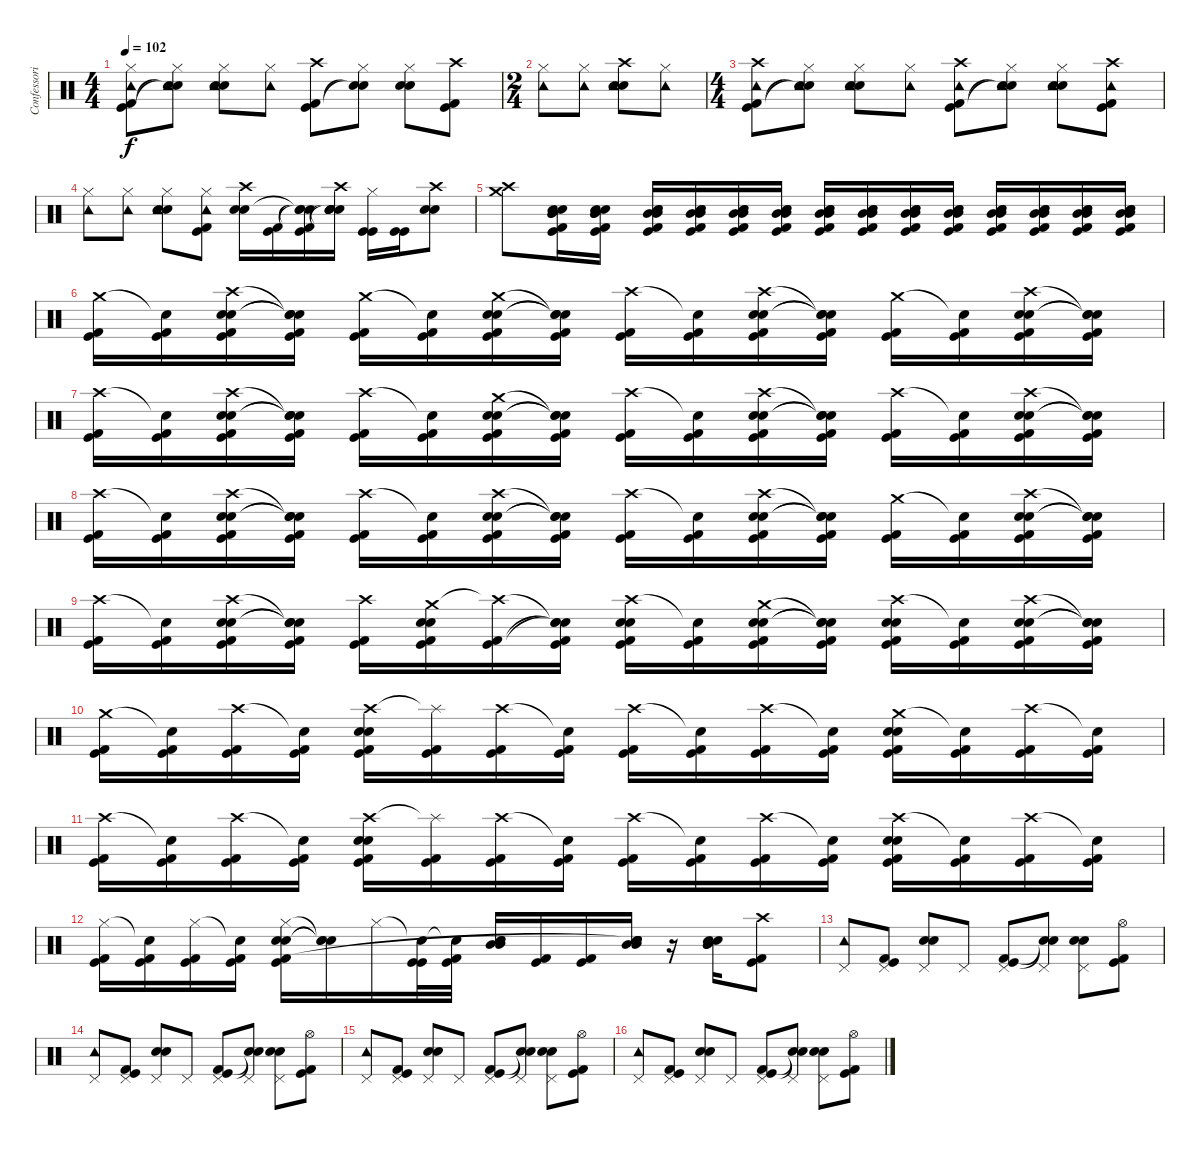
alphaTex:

\track ("Confessori" "Confessori") {instrument percussion}
\staff {score}
\articulation defaults
\ts (4 4)
\tempo 102
\clef neutral
\ks c
("Hi-Hat (closed)" "Kick (hit)" "Kick (hit) 2" "Tambourine (hit)").8{dy f} ("Hi-Hat (closed)" "Snare (hit)"{t} "Snare (hit)"{t} "Tambourine (hit)").8 ("Hi-Hat (closed)" "Electric Snare (hit)" "Snare (hit) 2" "Tambourine (hit)").8 ("Hi-Hat (closed)" "Tambourine (hit)").8 ("Crash high (hit)" "Kick (hit)" "Kick (hit) 2").8 ("Hi-Hat (closed)" "Snare (hit)"{t} "Snare (hit)"{t}).8 ("Hi-Hat (closed)" "Electric Snare (hit)" "Snare (hit) 2").8 ("Crash high (hit)" "Kick (hit)" "Kick (hit) 2").8 |
\ts (2 4)
("Hi-Hat (closed)" "Tambourine (hit)").8 ("Hi-Hat (closed)" "Tambourine (hit)").8 ("Crash high (hit)" "Electric Snare (hit)" "Snare (hit) 2" "Tambourine (hit)").8 ("Hi-Hat (closed)" "Tambourine (hit)").8 |
\ts (4 4)
("Crash high (hit)" "Kick (hit)" "Kick (hit) 2" "Tambourine (hit)").8 ("Hi-Hat (closed)" "Snare (hit)"{t} "Snare (hit)"{t} "Tambourine (hit)").8 ("Hi-Hat (closed)" "Electric Snare (hit)" "Snare (hit) 2" "Tambourine (hit)").8 ("Hi-Hat (closed)" "Tambourine (hit)").8 ("Crash high (hit)" "Kick (hit)" "Kick (hit) 2" "Tambourine (hit)").8 ("Hi-Hat (closed)" "Snare (hit)"{t} "Snare (hit)"{t} "Tambourine (hit)").8 ("Hi-Hat (closed)" "Electric Snare (hit)" "Snare (hit) 2" "Tambourine (hit)").8 ("Crash high (hit)" "Kick (hit)" "Kick (hit) 2" "Tambourine (hit)").8 |
("Hi-Hat (closed)" "Tambourine (hit)").8 ("Hi-Hat (closed)" "Tambourine (hit)").8 ("Hi-Hat (closed)" "Electric Snare (hit)" "Snare (hit) 2" "Tambourine (hit)").8 ("Hi-Hat (closed)" "Kick (hit)" "Kick (hit) 2" "Tambourine (hit)").8 ("Crash high (hit)" "Electric Snare (hit)" "Snare (hit) 2").16 ("Kick (hit)" "Kick (hit) 2").16 ("Snare (hit)"{t} "Snare (hit)"{t} "Snare (hit)"{t} "Kick (hit)" "Kick (hit) 2").16 ("Crash high (hit)" "Electric Snare (hit)" "Snare (hit) 2" "Snare (hit)"{t} "Snare (hit)"{t}).16 ("Hi-Hat (closed)" "Kick (hit)" "Kick (hit)").16 ("Kick (hit)" "Kick (hit)").16 ("Crash high (hit)" "Electric Snare (hit)" "Snare (hit) 2").8 |
("Crash medium (hit)" "Crash high (hit)").8 ("Electric Snare (hit)" "Snare (hit) 2" "Mid Tom (hit)" "Mid Tom (hit)" "Kick (hit) 2" "Kick (hit)").16 ("Electric Snare (hit)" "Snare (hit) 2" "Mid Tom (hit)" "Mid Tom (hit)" "Kick (hit) 2" "Kick (hit)").16 ("Electric Snare (hit)" "Snare (hit) 2" "Mid Tom (hit)" "Mid Tom (hit)" "Kick (hit) 2" "Kick (hit)").16 ("Electric Snare (hit)" "Snare (hit) 2" "Mid Tom (hit)" "Mid Tom (hit)" "Kick (hit) 2" "Kick (hit)").16 ("Electric Snare (hit)" "Snare (hit) 2" "Mid Tom (hit)" "Mid Tom (hit)" "Kick (hit) 2" "Kick (hit)").16 ("Electric Snare (hit)" "Snare (hit) 2" "Mid Tom (hit)" "Mid Tom (hit)" "Kick (hit) 2" "Kick (hit)").16 ("Electric Snare (hit)" "Snare (hit) 2" "Mid Tom (hit)" "Mid Tom (hit)" "Kick (hit) 2" "Kick (hit)").16 ("Electric Snare (hit)" "Snare (hit) 2" "Mid Tom (hit)" "Mid Tom (hit)" "Kick (hit) 2" "Kick (hit)").16 ("Electric Snare (hit)" "Snare (hit) 2" "Mid Tom (hit)" "Mid Tom (hit)" "Kick (hit) 2" "Kick (hit)").16 ("Electric Snare (hit)" "Snare (hit) 2" "Mid Tom (hit)" "Mid Tom (hit)" "Kick (hit) 2" "Kick (hit)").16 ("Electric Snare (hit)" "Snare (hit) 2" "Mid Tom (hit)" "Mid Tom (hit)" "Kick (hit) 2" "Kick (hit)").16 ("Electric Snare (hit)" "Snare (hit) 2" "Mid Tom (hit)" "Mid Tom (hit)" "Kick (hit) 2" "Kick (hit)").16 ("Electric Snare (hit)" "Snare (hit) 2" "Mid Tom (hit)" "Mid Tom (hit)" "Kick (hit) 2" "Kick (hit)").16 ("Electric Snare (hit)" "Snare (hit) 2" "Mid Tom (hit)" "Mid Tom (hit)" "Kick (hit) 2" "Kick (hit)").16 |
("Crash medium (hit)" "Kick (hit)" "Kick (hit) 2").16 ("Snare (hit)"{t} "Kick (hit)" "Kick (hit) 2").16 ("Crash high (hit)" "Electric Snare (hit)" "Snare (hit) 2" "Kick (hit)" "Kick (hit) 2").16 ("Snare (hit)"{t} "Snare (hit)"{t} "Snare (hit)"{t} "Kick (hit)" "Kick (hit) 2").16 ("Crash medium (hit)" "Kick (hit)" "Kick (hit) 2").16 ("Snare (hit)"{t} "Kick (hit)" "Kick (hit) 2").16 ("Crash medium (hit)" "Electric Snare (hit)" "Snare (hit) 2" "Kick (hit)" "Kick (hit) 2").16 ("Snare (hit)"{t} "Snare (hit)"{t} "Snare (hit)"{t} "Kick (hit)" "Kick (hit) 2").16 ("Crash high (hit)" "Kick (hit)" "Kick (hit) 2").16 ("Snare (hit)"{t} "Kick (hit)" "Kick (hit) 2").16 ("Crash high (hit)" "Electric Snare (hit)" "Snare (hit) 2" "Kick (hit)" "Kick (hit) 2").16 ("Snare (hit)"{t} "Snare (hit)"{t} "Snare (hit)"{t} "Kick (hit)" "Kick (hit) 2").16 ("Crash medium (hit)" "Kick (hit)" "Kick (hit) 2").16 ("Snare (hit)"{t} "Kick (hit)" "Kick (hit) 2").16 ("Crash high (hit)" "Electric Snare (hit)" "Snare (hit) 2" "Kick (hit)" "Kick (hit) 2").16 ("Snare (hit)"{t} "Snare (hit)"{t} "Snare (hit)"{t} "Kick (hit)" "Kick (hit) 2").16 |
("Crash high (hit)" "Kick (hit)" "Kick (hit) 2").16 ("Snare (hit)"{t} "Kick (hit)" "Kick (hit) 2").16 ("Crash high (hit)" "Electric Snare (hit)" "Snare (hit) 2" "Kick (hit)" "Kick (hit) 2").16 ("Snare (hit)"{t} "Snare (hit)"{t} "Snare (hit)"{t} "Kick (hit)" "Kick (hit) 2").16 ("Crash high (hit)" "Kick (hit)" "Kick (hit) 2").16 ("Snare (hit)"{t} "Kick (hit)" "Kick (hit) 2").16 ("Crash medium (hit)" "Electric Snare (hit)" "Snare (hit) 2" "Kick (hit)" "Kick (hit) 2").16 ("Snare (hit)"{t} "Snare (hit)"{t} "Snare (hit)"{t} "Kick (hit)" "Kick (hit) 2").16 ("Crash high (hit)" "Kick (hit)" "Kick (hit) 2").16 ("Snare (hit)"{t} "Kick (hit)" "Kick (hit) 2").16 ("Crash high (hit)" "Electric Snare (hit)" "Snare (hit) 2" "Kick (hit)" "Kick (hit) 2").16 ("Snare (hit)"{t} "Snare (hit)"{t} "Snare (hit)"{t} "Kick (hit)" "Kick (hit) 2").16 ("Crash high (hit)" "Kick (hit)" "Kick (hit) 2").16 ("Snare (hit)"{t} "Kick (hit)" "Kick (hit) 2").16 ("Crash high (hit)" "Electric Snare (hit)" "Snare (hit) 2" "Kick (hit)" "Kick (hit) 2").16 ("Snare (hit)"{t} "Snare (hit)"{t} "Snare (hit)"{t} "Kick (hit)" "Kick (hit) 2").16 |
("Crash high (hit)" "Kick (hit)" "Kick (hit) 2").16 ("Snare (hit)"{t} "Kick (hit)" "Kick (hit) 2").16 ("Crash high (hit)" "Electric Snare (hit)" "Snare (hit) 2" "Kick (hit)" "Kick (hit) 2").16 ("Snare (hit)"{t} "Snare (hit)"{t} "Snare (hit)"{t} "Kick (hit)" "Kick (hit) 2").16 ("Crash high (hit)" "Kick (hit)" "Kick (hit) 2").16 ("Snare (hit)"{t} "Kick (hit)" "Kick (hit) 2").16 ("Crash high (hit)" "Electric Snare (hit)" "Snare (hit) 2" "Kick (hit)" "Kick (hit) 2").16 ("Snare (hit)"{t} "Snare (hit)"{t} "Snare (hit)"{t} "Kick (hit)" "Kick (hit) 2").16 ("Crash high (hit)" "Kick (hit)" "Kick (hit) 2").16 ("Snare (hit)"{t} "Kick (hit)" "Kick (hit) 2").16 ("Crash high (hit)" "Electric Snare (hit)" "Snare (hit) 2" "Kick (hit)" "Kick (hit) 2").16 ("Snare (hit)"{t} "Snare (hit)"{t} "Snare (hit)"{t} "Kick (hit)" "Kick (hit) 2").16 ("Crash medium (hit)" "Kick (hit)" "Kick (hit) 2").16 ("Snare (hit)"{t} "Kick (hit)" "Kick (hit) 2").16 ("Crash high (hit)" "Electric Snare (hit)" "Snare (hit) 2" "Kick (hit)" "Kick (hit) 2").16 ("Snare (hit)"{t} "Snare (hit)"{t} "Snare (hit)"{t} "Kick (hit)" "Kick (hit) 2").16 |
("Crash high (hit)" "Kick (hit)" "Kick (hit) 2").16 ("Snare (hit)"{t} "Kick (hit)" "Kick (hit) 2").16 ("Crash high (hit)" "Electric Snare (hit)" "Snare (hit) 2" "Kick (hit)" "Kick (hit) 2").16 ("Snare (hit)"{t} "Snare (hit)"{t} "Snare (hit)"{t} "Kick (hit)" "Kick (hit) 2").16 ("Crash high (hit)" "Kick (hit)" "Kick (hit) 2").16 ("Crash medium (hit)" "Electric Snare (hit)" "Snare (hit) 2" "Kick (hit)" "Kick (hit) 2").16 ("Crash high (hit)"{t} "Kick (hit)" "Kick (hit) 2").16 ("Snare (hit)"{t} "Snare (hit)"{t} "Snare (hit)"{t} "Kick (hit)" "Kick (hit) 2").16 ("Crash high (hit)" "Electric Snare (hit)" "Snare (hit) 2" "Kick (hit)" "Kick (hit) 2").16 ("Snare (hit)"{t} "Kick (hit)" "Kick (hit) 2").16 ("Crash medium (hit)" "Electric Snare (hit)" "Snare (hit) 2" "Kick (hit)" "Kick (hit) 2").16 ("Snare (hit)"{t} "Snare (hit)"{t} "Snare (hit)"{t} "Kick (hit)" "Kick (hit) 2").16 ("Crash high (hit)" "Electric Snare (hit)" "Snare (hit) 2" "Kick (hit)" "Kick (hit) 2").16 ("Snare (hit)"{t} "Kick (hit)" "Kick (hit) 2").16 ("Crash high (hit)" "Electric Snare (hit)" "Snare (hit) 2" "Kick (hit)" "Kick (hit) 2").16 ("Snare (hit)"{t} "Snare (hit)"{t} "Snare (hit)"{t} "Kick (hit)" "Kick (hit) 2").16 |
("Crash medium (hit)" "Kick (hit)" "Kick (hit) 2").16 ("Snare (hit)"{t} "Kick (hit)" "Kick (hit) 2").16 ("Crash high (hit)" "Kick (hit)" "Kick (hit) 2").16 ("Snare (hit)"{t} "Kick (hit)" "Kick (hit) 2").16 ("Crash high (hit)" "Electric Snare (hit)" "Snare (hit) 2" "Kick (hit)" "Kick (hit) 2").16 ("Splash (hit)"{t} "Kick (hit)" "Kick (hit) 2").16 ("Crash high (hit)" "Kick (hit)" "Kick (hit) 2").16 ("Snare (hit)"{t} "Kick (hit)" "Kick (hit) 2").16 ("Crash high (hit)" "Kick (hit)" "Kick (hit) 2").16 ("Snare (hit)"{t} "Kick (hit)" "Kick (hit) 2").16 ("Crash high (hit)" "Kick (hit)" "Kick (hit) 2").16 ("Snare (hit)"{t} "Kick (hit)" "Kick (hit) 2").16 ("Crash medium (hit)" "Electric Snare (hit)" "Snare (hit) 2" "Kick (hit)" "Kick (hit) 2").16 ("Snare (hit)"{t} "Kick (hit)" "Kick (hit) 2").16 ("Crash high (hit)" "Kick (hit)" "Kick (hit) 2").16 ("Snare (hit)"{t} "Kick (hit)" "Kick (hit) 2").16 |
("Crash high (hit)" "Kick (hit)" "Kick (hit) 2").16 ("Snare (hit)"{t} "Kick (hit)" "Kick (hit) 2").16 ("Crash high (hit)" "Kick (hit)" "Kick (hit) 2").16 ("Snare (hit)"{t} "Kick (hit)" "Kick (hit) 2").16 ("Crash high (hit)" "Electric Snare (hit)" "Snare (hit) 2" "Kick (hit)" "Kick (hit) 2").16 ("Splash (hit)"{t} "Kick (hit)" "Kick (hit) 2").16 ("Crash high (hit)" "Kick (hit)" "Kick (hit) 2").16 ("Snare (hit)"{t} "Kick (hit)" "Kick (hit) 2").16 ("Crash high (hit)" "Kick (hit)" "Kick (hit) 2").16 ("Snare (hit)"{t} "Kick (hit)" "Kick (hit) 2").16 ("Crash high (hit)" "Kick (hit)" "Kick (hit) 2").16 ("Snare (hit)"{t} "Kick (hit)" "Kick (hit) 2").16 ("Crash high (hit)" "Electric Snare (hit)" "Snare (hit) 2" "Kick (hit)" "Kick (hit) 2").16 ("Snare (hit)"{t} "Kick (hit)" "Kick (hit) 2").16 ("Crash high (hit)" "Kick (hit)" "Kick (hit) 2").16 ("Snare (hit)"{t} "Kick (hit)" "Kick (hit) 2").16 |
("Hi-Hat (closed)" "Kick (hit)" "Kick (hit) 2").16 ("Snare (hit)"{t} "Kick (hit)" "Kick (hit) 2").16 ("Hi-Hat (closed)" "Kick (hit)" "Kick (hit) 2").16 ("Snare (hit)"{t} "Kick (hit)" "Kick (hit) 2").16 ("Hi-Hat (closed)" "Electric Snare (hit)" "Snare (hit) 2" "Kick (hit)" "Kick (hit) 2").16 ("Snare (hit)"{t} "Snare (hit)"{t} "Snare (hit)"{t}).16 "Hi-Hat (closed)".16 ("Snare (hit)"{t} "Kick (hit)" "Kick (hit)").32 ("Snare (hit)"{t} "Kick (hit)" "Kick (hit) 2").32 ("Electric Snare (hit)" "Snare (hit) 2" "Mid Tom (hit)" "Mid Tom (hit)").16 ("Kick (hit)" "Kick (hit) 2").16 ("Kick (hit)" "Kick (hit) 2").16 ("Mid Tom (hit)" "Electric Snare (hit)" "Snare (hit) 2" "Mid Tom (hit)" "Snare (hit)"{t} "Snare (hit)").16 r.16 ("Electric Snare (hit)" "Snare (hit) 2" "Mid Tom (hit)" "Mid Tom (hit)").16 ("Crash high (hit)" "Kick (hit)" "Kick (hit) 2").8 |
("Pedal Hi-Hat (hit)" "Tambourine (hit)").8 ("Pedal Hi-Hat (hit)" "Kick (hit) 2" "Kick (hit)").8 ("Pedal Hi-Hat (hit)" "Electric Snare (hit)" "Snare (hit) 2").8 "Pedal Hi-Hat (hit)".8 ("Pedal Hi-Hat (hit)" "Kick (hit)" "Kick (hit) 2").8 ("Pedal Hi-Hat (hit)" "Snare (hit)"{t} "Snare (hit)"{t}).8 ("Pedal Hi-Hat (hit)" "Electric Snare (hit)" "Snare (hit) 2").8 ("Hi-Hat (open)" "Kick (hit)" "Kick (hit) 2").8 |
("Pedal Hi-Hat (hit)" "Tambourine (hit)").8 ("Pedal Hi-Hat (hit)" "Kick (hit) 2" "Kick (hit)").8 ("Pedal Hi-Hat (hit)" "Electric Snare (hit)" "Snare (hit) 2").8 "Pedal Hi-Hat (hit)".8 ("Pedal Hi-Hat (hit)" "Kick (hit)" "Kick (hit) 2").8 ("Pedal Hi-Hat (hit)" "Snare (hit)"{t} "Snare (hit)"{t}).8 ("Pedal Hi-Hat (hit)" "Electric Snare (hit)" "Snare (hit) 2").8 ("Hi-Hat (open)" "Kick (hit)" "Kick (hit) 2").8 |
("Pedal Hi-Hat (hit)" "Tambourine (hit)").8 ("Pedal Hi-Hat (hit)" "Kick (hit) 2" "Kick (hit)").8 ("Pedal Hi-Hat (hit)" "Electric Snare (hit)" "Snare (hit) 2").8 "Pedal Hi-Hat (hit)".8 ("Pedal Hi-Hat (hit)" "Kick (hit)" "Kick (hit) 2").8 ("Pedal Hi-Hat (hit)" "Snare (hit)"{t} "Snare (hit)"{t}).8 ("Pedal Hi-Hat (hit)" "Electric Snare (hit)" "Snare (hit) 2").8 ("Hi-Hat (open)" "Kick (hit)" "Kick (hit) 2").8 |
("Pedal Hi-Hat (hit)" "Tambourine (hit)").8 ("Pedal Hi-Hat (hit)" "Kick (hit) 2" "Kick (hit)").8 ("Pedal Hi-Hat (hit)" "Electric Snare (hit)" "Snare (hit) 2").8 "Pedal Hi-Hat (hit)".8 ("Pedal Hi-Hat (hit)" "Kick (hit)" "Kick (hit) 2").8 ("Pedal Hi-Hat (hit)" "Snare (hit)"{t} "Snare (hit)"{t}).8 ("Pedal Hi-Hat (hit)" "Electric Snare (hit)" "Snare (hit) 2").8 ("Hi-Hat (open)" "Kick (hit)" "Kick (hit) 2").8
